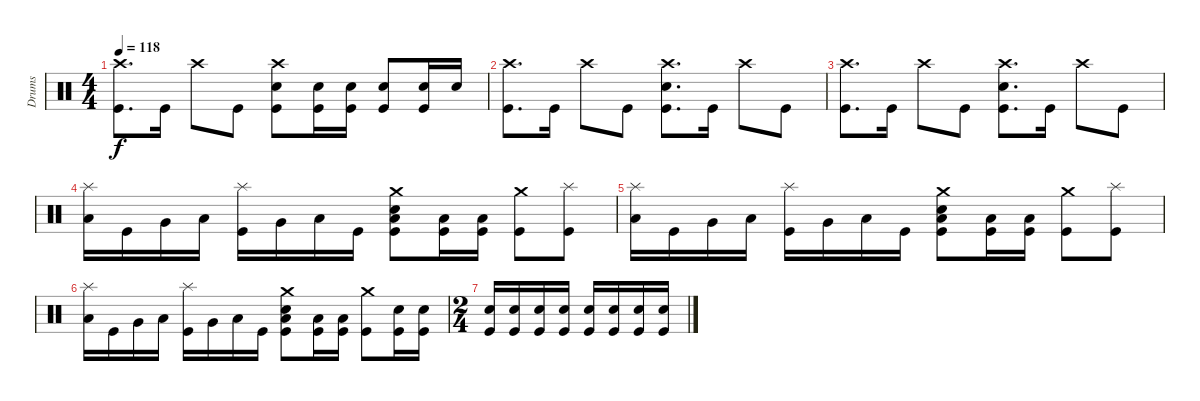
\track ("Drums" "Drums") {instrument percussion}
\staff {score}
\articulation defaults
\ts (4 4)
\tempo 118
\clef neutral
\ks c
("Crash high (hit)" "Kick (hit)").8{d dy f} "Kick (hit)".16 "Crash high (hit)".8 "Kick (hit)".8 ("Crash high (hit)" "Snare (hit) 2" "Kick (hit)").8 ("Snare (hit) 2" "Kick (hit)").16 ("Snare (hit) 2" "Kick (hit)").16 ("Snare (hit) 2" "Kick (hit)").8 ("Snare (hit) 2" "Kick (hit)").16 "Snare (hit) 2".16 |
("Crash high (hit)" "Kick (hit)").8{d} "Kick (hit)".16 "Crash high (hit)".8 "Kick (hit)".8 ("Crash high (hit)" "Snare (hit) 2" "Kick (hit)").8{d} "Kick (hit)".16 "Crash high (hit)".8 "Kick (hit)".8 |
("Crash high (hit)" "Kick (hit)").8{d} "Kick (hit)".16 "Crash high (hit)".8 "Kick (hit)".8 ("Crash high (hit)" "Snare (hit) 2" "Kick (hit)").8{d} "Kick (hit)".16 "Crash high (hit)".8 "Kick (hit)".8 |
("Splash (hit)" "Low Floor Tom (hit)").16 "Kick (hit)".16 "Very Low Tom (hit)".16 "Low Floor Tom (hit)".16 ("Splash (hit)" "Kick (hit)").16 "Very Low Tom (hit)".16 "Low Floor Tom (hit)".16 "Kick (hit)".16 ("Crash medium (hit)" "Snare (hit) 2" "Low Floor Tom (hit)" "Kick (hit)").8 ("Low Tom (hit)" "Kick (hit)").16 ("Low Tom (hit)" "Kick (hit)").16 ("Crash medium (hit)" "Kick (hit)").8 ("Splash (hit)" "Kick (hit)").8 |
("Splash (hit)" "Low Floor Tom (hit)").16 "Kick (hit)".16 "Very Low Tom (hit)".16 "Low Floor Tom (hit)".16 ("Splash (hit)" "Kick (hit)").16 "Very Low Tom (hit)".16 "Low Floor Tom (hit)".16 "Kick (hit)".16 ("Crash medium (hit)" "Snare (hit) 2" "Low Floor Tom (hit)" "Kick (hit)").8 ("Low Tom (hit)" "Kick (hit)").16 ("Low Tom (hit)" "Kick (hit)").16 ("Crash medium (hit)" "Kick (hit)").8 ("Splash (hit)" "Kick (hit)").8 |
("Splash (hit)" "Low Floor Tom (hit)").16 "Kick (hit)".16 "Very Low Tom (hit)".16 "Low Floor Tom (hit)".16 ("Splash (hit)" "Kick (hit)").16 "Very Low Tom (hit)".16 "Low Floor Tom (hit)".16 "Kick (hit)".16 ("Crash medium (hit)" "Snare (hit) 2" "Low Floor Tom (hit)" "Kick (hit)").8 ("Low Tom (hit)" "Kick (hit)").16 ("Low Tom (hit)" "Kick (hit)").16 ("Crash medium (hit)" "Kick (hit)").8 ("Snare (hit) 2" "Kick (hit)").16 ("Snare (hit) 2" "Kick (hit)").16 |
\ts (2 4)
("Snare (hit) 2" "Kick (hit)").16 ("Snare (hit) 2" "Kick (hit)").16 ("Snare (hit) 2" "Kick (hit)").16 ("Snare (hit) 2" "Kick (hit)").16 ("Snare (hit) 2" "Kick (hit)").16 ("Snare (hit) 2" "Kick (hit)").16 ("Snare (hit) 2" "Kick (hit)").16 ("Snare (hit) 2" "Kick (hit)").16
